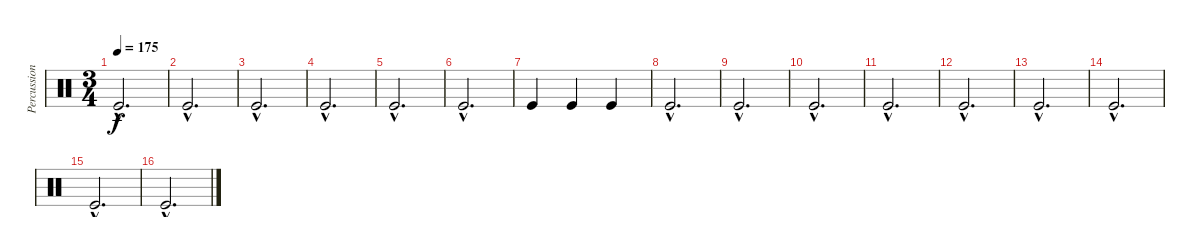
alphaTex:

\track ("Percussion" "Percussion") {instrument percussion}
\staff {score}
\articulation defaults
\ts (3 4)
\tempo 175
\clef neutral
\ks c "Kick (hit)"{hac}.2{d dy f}
|
"Kick (hit)"{hac}.2{d} |
"Kick (hit)"{hac}.2{d} |
"Kick (hit)"{hac}.2{d} |
"Kick (hit)"{hac}.2{d} |
"Kick (hit)"{hac}.2{d} |
"Kick (hit)".4 "Kick (hit)".4 "Kick (hit)".4 |
"Kick (hit)"{hac}.2{d} |
"Kick (hit)"{hac}.2{d} |
"Kick (hit)"{hac}.2{d} |
"Kick (hit)"{hac}.2{d} |
"Kick (hit)"{hac}.2{d} |
"Kick (hit)"{hac}.2{d} |
"Kick (hit)"{hac}.2{d} |
"Kick (hit)"{hac}.2{d} |
"Kick (hit)"{hac}.2{d}
